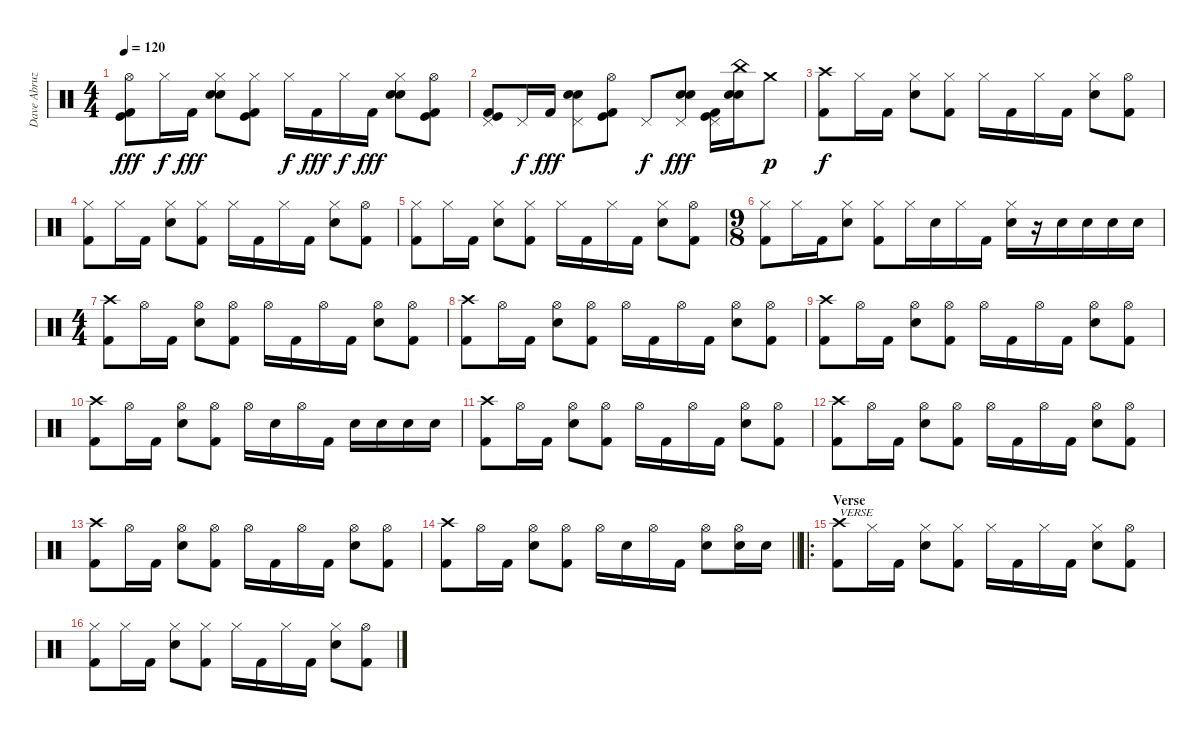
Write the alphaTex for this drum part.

\track ("Dave Abruzzesse" "Dave Abruz") {instrument percussion}
\staff {score}
\articulation defaults
\ts (4 4)
\tempo 120
\clef neutral
\ks c
("Hi-Hat (open)" "Kick (hit)" "Kick (hit) 2").8{dy fff} "Hi-Hat (closed)".16{dy f} "Kick (hit) 2".16{dy fff} ("Hi-Hat (closed)" "Electric Snare (hit)" "Electric Snare (hit)").8 ("Hi-Hat (closed)" "Kick (hit)" "Kick (hit) 2").8 "Hi-Hat (closed)".16{dy f} "Kick (hit) 2".16{dy fff} "Hi-Hat (closed)".16{dy f} "Kick (hit) 2".16{dy fff} ("Hi-Hat (closed)" "Electric Snare (hit)" "Electric Snare (hit)").8 ("Hi-Hat (open)" "Kick (hit)" "Kick (hit) 2").8 |
("Pedal Hi-Hat (hit)" "Kick (hit)" "Kick (hit) 2").8 "Pedal Hi-Hat (hit)".16{dy f} "Kick (hit) 2".16{dy fff} ("Pedal Hi-Hat (hit)" "Electric Snare (hit)" "Electric Snare (hit)").8 ("Hi-Hat (open)" "Kick (hit)" "Kick (hit) 2").8 "Pedal Hi-Hat (hit)".8{dy f} ("Pedal Hi-Hat (hit)" "Electric Snare (hit)" "Electric Snare (hit)").8{dy fff} ("Pedal Hi-Hat (hit)" "Kick (hit)" "Kick (hit) 2").16 ("China (hit)" "Electric Snare (hit)" "Electric Snare (hit)").16 "Crash medium (hit)".8{dy p} |
("Crash high (hit)" "Kick (hit) 2").8{dy f} "Hi-Hat (closed)".16 "Kick (hit) 2".16 ("Hi-Hat (closed)" "Electric Snare (hit)").8 ("Hi-Hat (closed)" "Kick (hit) 2").8 "Hi-Hat (closed)".16 "Kick (hit) 2".16 "Hi-Hat (closed)".16 "Kick (hit) 2".16 ("Hi-Hat (closed)" "Electric Snare (hit)").8 ("Hi-Hat (open)" "Kick (hit) 2").8 |
("Hi-Hat (closed)" "Kick (hit) 2").8 "Hi-Hat (closed)".16 "Kick (hit) 2".16 ("Hi-Hat (closed)" "Electric Snare (hit)").8 ("Hi-Hat (closed)" "Kick (hit) 2").8 "Hi-Hat (closed)".16 "Kick (hit) 2".16 "Hi-Hat (closed)".16 "Kick (hit) 2".16 ("Hi-Hat (closed)" "Electric Snare (hit)").8 ("Hi-Hat (open)" "Kick (hit) 2").8 |
("Hi-Hat (closed)" "Kick (hit) 2").8 "Hi-Hat (closed)".16 "Kick (hit) 2".16 ("Hi-Hat (closed)" "Electric Snare (hit)").8 ("Hi-Hat (closed)" "Kick (hit) 2").8 "Hi-Hat (closed)".16 "Kick (hit) 2".16 "Hi-Hat (closed)".16 "Kick (hit) 2".16 ("Hi-Hat (closed)" "Electric Snare (hit)").8 ("Hi-Hat (open)" "Kick (hit) 2").8 |
\ts (9 8)
("Hi-Hat (closed)" "Kick (hit) 2").8 "Hi-Hat (closed)".16 "Kick (hit) 2".16 ("Hi-Hat (closed)" "Electric Snare (hit)").8 ("Hi-Hat (closed)" "Kick (hit) 2").8 "Hi-Hat (closed)".16 "Electric Snare (hit)".16 "Hi-Hat (closed)".16 "Kick (hit) 2".16 ("Hi-Hat (closed)" "Electric Snare (hit)").16 r.16 "Electric Snare (hit)".16 "Electric Snare (hit)".16 "Electric Snare (hit)".16 "Electric Snare (hit)".16 |
\ts (4 4)
("Crash high (hit)" "Kick (hit) 2").8 "Hi-Hat (open)".16 "Kick (hit) 2".16 ("Hi-Hat (open)" "Electric Snare (hit)").8 ("Hi-Hat (open)" "Kick (hit) 2").8 "Hi-Hat (open)".16 "Kick (hit) 2".16 "Hi-Hat (open)".16 "Kick (hit) 2".16 ("Hi-Hat (open)" "Electric Snare (hit)").8 ("Hi-Hat (open)" "Kick (hit) 2").8 |
("Crash high (hit)" "Kick (hit) 2").8 "Hi-Hat (open)".16 "Kick (hit) 2".16 ("Hi-Hat (open)" "Electric Snare (hit)").8 ("Hi-Hat (open)" "Kick (hit) 2").8 "Hi-Hat (open)".16 "Kick (hit) 2".16 "Hi-Hat (open)".16 "Kick (hit) 2".16 ("Hi-Hat (open)" "Electric Snare (hit)").8 ("Hi-Hat (open)" "Kick (hit) 2").8 |
("Crash high (hit)" "Kick (hit) 2").8 "Hi-Hat (open)".16 "Kick (hit) 2".16 ("Hi-Hat (open)" "Electric Snare (hit)").8 ("Hi-Hat (open)" "Kick (hit) 2").8 "Hi-Hat (open)".16 "Kick (hit) 2".16 "Hi-Hat (open)".16 "Kick (hit) 2".16 ("Hi-Hat (open)" "Electric Snare (hit)").8 ("Hi-Hat (open)" "Kick (hit) 2").8 |
("Crash high (hit)" "Kick (hit) 2").8 "Hi-Hat (open)".16 "Kick (hit) 2".16 ("Hi-Hat (open)" "Electric Snare (hit)").8 ("Hi-Hat (open)" "Kick (hit) 2").8 "Hi-Hat (open)".16 "Electric Snare (hit)".16 "Hi-Hat (open)".16 "Kick (hit) 2".16 "Electric Snare (hit)".16 "Electric Snare (hit)".16 "Electric Snare (hit)".16 "Electric Snare (hit)".16 |
("Crash high (hit)" "Kick (hit) 2").8 "Hi-Hat (open)".16 "Kick (hit) 2".16 ("Hi-Hat (open)" "Electric Snare (hit)").8 ("Hi-Hat (open)" "Kick (hit) 2").8 "Hi-Hat (open)".16 "Kick (hit) 2".16 "Hi-Hat (open)".16 "Kick (hit) 2".16 ("Hi-Hat (open)" "Electric Snare (hit)").8 ("Hi-Hat (open)" "Kick (hit) 2").8 |
("Crash high (hit)" "Kick (hit) 2").8 "Hi-Hat (open)".16 "Kick (hit) 2".16 ("Hi-Hat (open)" "Electric Snare (hit)").8 ("Hi-Hat (open)" "Kick (hit) 2").8 "Hi-Hat (open)".16 "Kick (hit) 2".16 "Hi-Hat (open)".16 "Kick (hit) 2".16 ("Hi-Hat (open)" "Electric Snare (hit)").8 ("Hi-Hat (open)" "Kick (hit) 2").8 |
("Crash high (hit)" "Kick (hit) 2").8 "Hi-Hat (open)".16 "Kick (hit) 2".16 ("Hi-Hat (open)" "Electric Snare (hit)").8 ("Hi-Hat (open)" "Kick (hit) 2").8 "Hi-Hat (open)".16 "Kick (hit) 2".16 "Hi-Hat (open)".16 "Kick (hit) 2".16 ("Hi-Hat (open)" "Electric Snare (hit)").8 ("Hi-Hat (open)" "Kick (hit) 2").8 |
\barLineRight lightlight
("Crash high (hit)" "Kick (hit) 2").8 "Hi-Hat (open)".16 "Kick (hit) 2".16 ("Hi-Hat (open)" "Electric Snare (hit)").8 ("Hi-Hat (open)" "Kick (hit) 2").8 "Hi-Hat (open)".16 "Electric Snare (hit)".16 "Hi-Hat (open)".16 "Kick (hit) 2".16 ("Hi-Hat (open)" "Electric Snare (hit)").8 ("Hi-Hat (open)" "Electric Snare (hit)").16 "Electric Snare (hit)".16 |
\ro
\section ("" "Verse")
("Crash high (hit)" "Kick (hit) 2").8{txt "VERSE"} "Hi-Hat (closed)".16 "Kick (hit) 2".16 ("Hi-Hat (closed)" "Electric Snare (hit)").8 ("Hi-Hat (closed)" "Kick (hit) 2").8 "Hi-Hat (closed)".16 "Kick (hit) 2".16 "Hi-Hat (closed)".16 "Kick (hit) 2".16 ("Hi-Hat (closed)" "Electric Snare (hit)").8 ("Hi-Hat (open)" "Kick (hit) 2").8 |
("Hi-Hat (closed)" "Kick (hit) 2").8 "Hi-Hat (closed)".16 "Kick (hit) 2".16 ("Hi-Hat (closed)" "Electric Snare (hit)").8 ("Hi-Hat (closed)" "Kick (hit) 2").8 "Hi-Hat (closed)".16 "Kick (hit) 2".16 "Hi-Hat (closed)".16 "Kick (hit) 2".16 ("Hi-Hat (closed)" "Electric Snare (hit)").8 ("Hi-Hat (open)" "Kick (hit) 2").8
